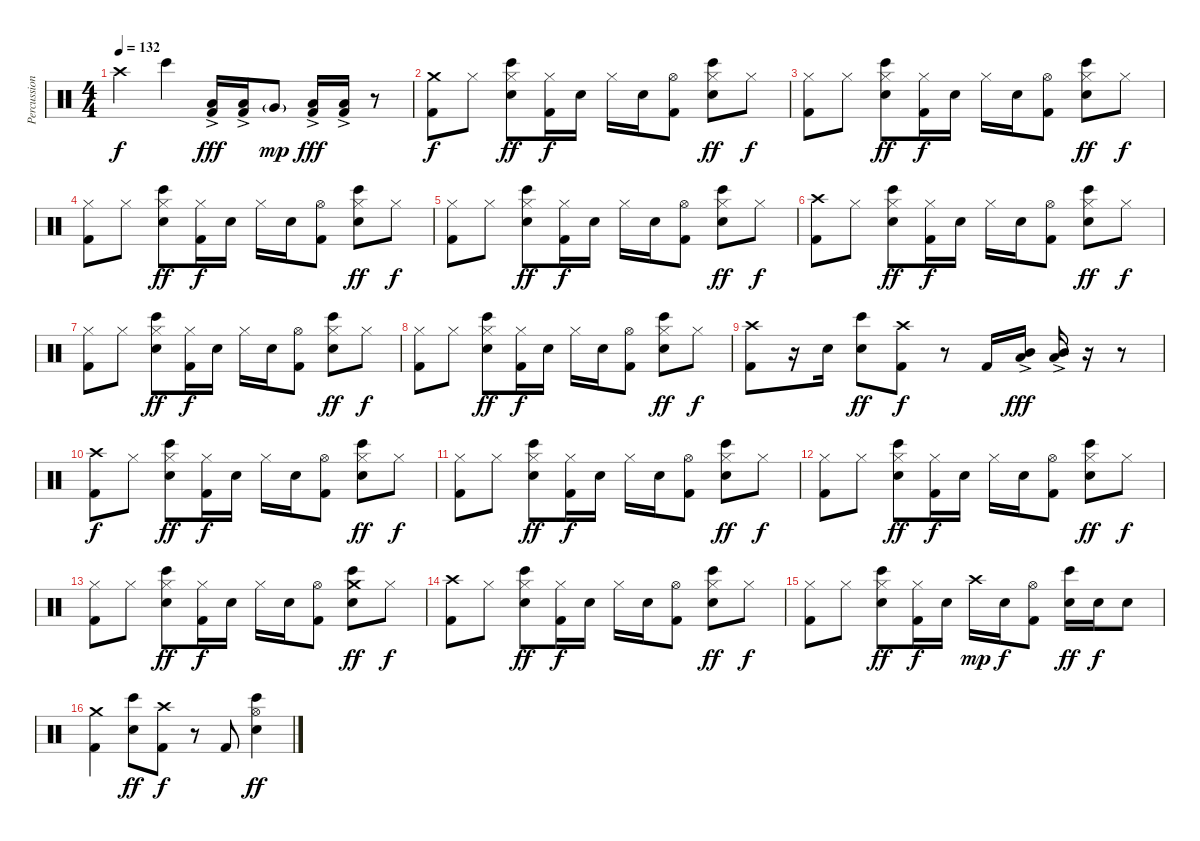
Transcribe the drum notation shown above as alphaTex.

\track ("Percussion" "Percussion") {instrument percussion}
\staff {score}
\articulation defaults
\ts (4 4)
\tempo 132
\clef neutral
\ks c "Crash high (hit)".4{dy f} "Bongo High (hit)".4
("Low Tom (hit)"{ac} "Kick (hit) 2").16{dy fff} ("Low Tom (hit)"{ac} "Kick (hit) 2").16 "Very Low Tom (hit)"{g}.8{dy mp} ("Low Tom (hit)"{ac} "Kick (hit) 2").16{dy fff} ("Low Tom (hit)"{ac} "Kick (hit) 2").16 r.8 |
("Crash medium (hit)" "Kick (hit) 2").8{dy f} "Hi-Hat (closed)".8 ("Hi-Hat (closed)" "Bongo High (hit)" "Snare (hit) 2").8{dy ff} ("Hi-Hat (closed)" "Kick (hit) 2").16{dy f} "Snare (hit) 2".16 "Hi-Hat (closed)".16 "Snare (hit) 2".16 ("Hi-Hat (open)" "Kick (hit) 2").8 ("Hi-Hat (closed)" "Bongo High (hit)" "Snare (hit) 2").8{dy ff} "Hi-Hat (closed)".8{dy f} |
("Hi-Hat (closed)" "Kick (hit) 2").8 "Hi-Hat (closed)".8 ("Hi-Hat (closed)" "Bongo High (hit)" "Snare (hit) 2").8{dy ff} ("Hi-Hat (closed)" "Kick (hit) 2").16{dy f} "Snare (hit) 2".16 "Hi-Hat (closed)".16 "Snare (hit) 2".16 ("Hi-Hat (open)" "Kick (hit) 2").8 ("Hi-Hat (closed)" "Bongo High (hit)" "Snare (hit) 2").8{dy ff} "Hi-Hat (closed)".8{dy f} |
("Hi-Hat (closed)" "Kick (hit) 2").8 "Hi-Hat (closed)".8 ("Hi-Hat (closed)" "Bongo High (hit)" "Snare (hit) 2").8{dy ff} ("Hi-Hat (closed)" "Kick (hit) 2").16{dy f} "Snare (hit) 2".16 "Hi-Hat (closed)".16 "Snare (hit) 2".16 ("Hi-Hat (open)" "Kick (hit) 2").8 ("Hi-Hat (closed)" "Bongo High (hit)" "Snare (hit) 2").8{dy ff} "Hi-Hat (closed)".8{dy f} |
("Hi-Hat (closed)" "Kick (hit) 2").8 "Hi-Hat (closed)".8 ("Hi-Hat (closed)" "Bongo High (hit)" "Snare (hit) 2").8{dy ff} ("Hi-Hat (closed)" "Kick (hit) 2").16{dy f} "Snare (hit) 2".16 "Hi-Hat (closed)".16 "Snare (hit) 2".16 ("Hi-Hat (open)" "Kick (hit) 2").8 ("Hi-Hat (closed)" "Bongo High (hit)" "Snare (hit) 2").8{dy ff} "Hi-Hat (closed)".8{dy f} |
("Crash high (hit)" "Kick (hit) 2").8 "Hi-Hat (closed)".8 ("Hi-Hat (closed)" "Bongo High (hit)" "Snare (hit) 2").8{dy ff} ("Hi-Hat (closed)" "Kick (hit) 2").16{dy f} "Snare (hit) 2".16 "Hi-Hat (closed)".16 "Snare (hit) 2".16 ("Hi-Hat (open)" "Kick (hit) 2").8 ("Hi-Hat (closed)" "Bongo High (hit)" "Snare (hit) 2").8{dy ff} "Hi-Hat (closed)".8{dy f} |
("Hi-Hat (closed)" "Kick (hit) 2").8 "Hi-Hat (closed)".8 ("Hi-Hat (closed)" "Bongo High (hit)" "Snare (hit) 2").8{dy ff} ("Hi-Hat (closed)" "Kick (hit) 2").16{dy f} "Snare (hit) 2".16 "Hi-Hat (closed)".16 "Snare (hit) 2".16 ("Hi-Hat (open)" "Kick (hit) 2").8 ("Hi-Hat (closed)" "Bongo High (hit)" "Snare (hit) 2").8{dy ff} "Hi-Hat (closed)".8{dy f} |
("Hi-Hat (closed)" "Kick (hit) 2").8 "Hi-Hat (closed)".8 ("Hi-Hat (closed)" "Bongo High (hit)" "Snare (hit) 2").8{dy ff} ("Hi-Hat (closed)" "Kick (hit) 2").16{dy f} "Snare (hit) 2".16 "Hi-Hat (closed)".16 "Snare (hit) 2".16 ("Hi-Hat (open)" "Kick (hit) 2").8 ("Hi-Hat (closed)" "Bongo High (hit)" "Snare (hit) 2").8{dy ff} "Hi-Hat (closed)".8{dy f} |
("Crash high (hit)" "Kick (hit) 2").8 r.16 "Snare (hit) 2".16 ("Bongo High (hit)" "Snare (hit) 2").8{dy ff} ("Crash high (hit)" "Kick (hit) 2").8{dy f} r.8 "Kick (hit) 2".16 ("Mid Tom (hit)" "Low Tom (hit)"{ac}).16{dy fff} ("Mid Tom (hit)" "Low Tom (hit)"{ac}).16 r.16 r.8 |
("Crash high (hit)" "Kick (hit) 2").8{dy f} "Hi-Hat (closed)".8 ("Hi-Hat (closed)" "Bongo High (hit)" "Snare (hit) 2").8{dy ff} ("Hi-Hat (closed)" "Kick (hit) 2").16{dy f} "Snare (hit) 2".16 "Hi-Hat (closed)".16 "Snare (hit) 2".16 ("Hi-Hat (open)" "Kick (hit) 2").8 ("Hi-Hat (closed)" "Bongo High (hit)" "Snare (hit) 2").8{dy ff} "Hi-Hat (closed)".8{dy f} |
("Hi-Hat (closed)" "Kick (hit) 2").8 "Hi-Hat (closed)".8 ("Hi-Hat (closed)" "Bongo High (hit)" "Snare (hit) 2").8{dy ff} ("Hi-Hat (closed)" "Kick (hit) 2").16{dy f} "Snare (hit) 2".16 "Hi-Hat (closed)".16 "Snare (hit) 2".16 ("Hi-Hat (open)" "Kick (hit) 2").8 ("Hi-Hat (closed)" "Bongo High (hit)" "Snare (hit) 2").8{dy ff} "Hi-Hat (closed)".8{dy f} |
("Hi-Hat (closed)" "Kick (hit) 2").8 "Hi-Hat (closed)".8 ("Hi-Hat (closed)" "Bongo High (hit)" "Snare (hit) 2").8{dy ff} ("Hi-Hat (closed)" "Kick (hit) 2").16{dy f} "Snare (hit) 2".16 "Hi-Hat (closed)".16 "Snare (hit) 2".16 ("Hi-Hat (open)" "Kick (hit) 2").8 ("Hi-Hat (closed)" "Bongo High (hit)" "Snare (hit) 2").8{dy ff} "Hi-Hat (closed)".8{dy f} |
("Hi-Hat (closed)" "Kick (hit) 2").8 "Hi-Hat (closed)".8 ("Hi-Hat (closed)" "Bongo High (hit)" "Snare (hit) 2").8{dy ff} ("Hi-Hat (closed)" "Kick (hit) 2").16{dy f} "Snare (hit) 2".16 "Hi-Hat (closed)".16 "Snare (hit) 2".16 ("Hi-Hat (open)" "Kick (hit) 2").8 ("Crash medium (hit)" "Bongo High (hit)" "Snare (hit) 2").8{dy ff} "Hi-Hat (closed)".8{dy f} |
("Crash high (hit)" "Kick (hit) 2").8 "Hi-Hat (closed)".8 ("Hi-Hat (closed)" "Bongo High (hit)" "Snare (hit) 2").8{dy ff} ("Hi-Hat (closed)" "Kick (hit) 2").16{dy f} "Snare (hit) 2".16 "Hi-Hat (closed)".16 "Snare (hit) 2".16 ("Hi-Hat (open)" "Kick (hit) 2").8 ("Hi-Hat (closed)" "Bongo High (hit)" "Snare (hit) 2").8{dy ff} "Hi-Hat (closed)".8{dy f} |
("Hi-Hat (closed)" "Kick (hit) 2").8 "Hi-Hat (closed)".8 ("Hi-Hat (closed)" "Bongo High (hit)" "Snare (hit) 2").8{dy ff} ("Hi-Hat (closed)" "Kick (hit) 2").16{dy f} "Snare (hit) 2".16 "Crash high (hit)".16{dy mp} "Snare (hit) 2".16{dy f} ("Hi-Hat (open)" "Kick (hit) 2").8 ("Bongo High (hit)" "Snare (hit) 2").16{dy ff} "Snare (hit) 2".16{dy f} "Snare (hit) 2".8 |
("Crash medium (hit)" "Kick (hit) 2").4 ("Bongo High (hit)" "Snare (hit) 2").8{dy ff} ("Crash high (hit)" "Kick (hit) 2").8{dy f} r.8 "Kick (hit) 2".8 ("Hi-Hat (open)" "Bongo High (hit)" "Snare (hit) 2").4{dy ff}
